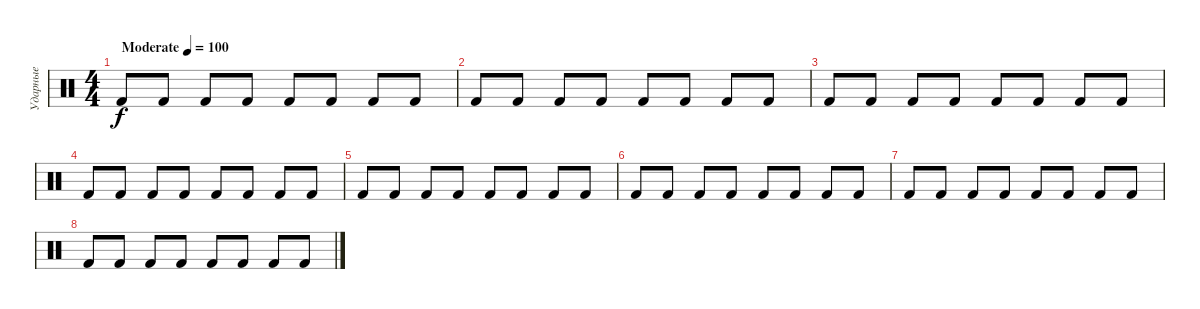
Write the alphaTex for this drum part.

\track ("Ударные" "Ударные") {instrument percussion}
\staff {score}
\articulation defaults
\ts (4 4)
\tempo (100 "Moderate")
\clef neutral
\ks c "Kick (hit) 2".8{dy f} "Kick (hit) 2".8 "Kick (hit) 2".8 "Kick (hit) 2".8 "Kick (hit) 2".8 "Kick (hit) 2".8 "Kick (hit) 2".8 "Kick (hit) 2".8
|
"Kick (hit) 2".8 "Kick (hit) 2".8 "Kick (hit) 2".8 "Kick (hit) 2".8 "Kick (hit) 2".8 "Kick (hit) 2".8 "Kick (hit) 2".8 "Kick (hit) 2".8 |
"Kick (hit) 2".8 "Kick (hit) 2".8 "Kick (hit) 2".8 "Kick (hit) 2".8 "Kick (hit) 2".8 "Kick (hit) 2".8 "Kick (hit) 2".8 "Kick (hit) 2".8 |
"Kick (hit) 2".8 "Kick (hit) 2".8 "Kick (hit) 2".8 "Kick (hit) 2".8 "Kick (hit) 2".8 "Kick (hit) 2".8 "Kick (hit) 2".8 "Kick (hit) 2".8 |
"Kick (hit) 2".8 "Kick (hit) 2".8 "Kick (hit) 2".8 "Kick (hit) 2".8 "Kick (hit) 2".8 "Kick (hit) 2".8 "Kick (hit) 2".8 "Kick (hit) 2".8 |
"Kick (hit) 2".8 "Kick (hit) 2".8 "Kick (hit) 2".8 "Kick (hit) 2".8 "Kick (hit) 2".8 "Kick (hit) 2".8 "Kick (hit) 2".8 "Kick (hit) 2".8 |
"Kick (hit) 2".8 "Kick (hit) 2".8 "Kick (hit) 2".8 "Kick (hit) 2".8 "Kick (hit) 2".8 "Kick (hit) 2".8 "Kick (hit) 2".8 "Kick (hit) 2".8 |
"Kick (hit) 2".8 "Kick (hit) 2".8 "Kick (hit) 2".8 "Kick (hit) 2".8 "Kick (hit) 2".8 "Kick (hit) 2".8 "Kick (hit) 2".8 "Kick (hit) 2".8
